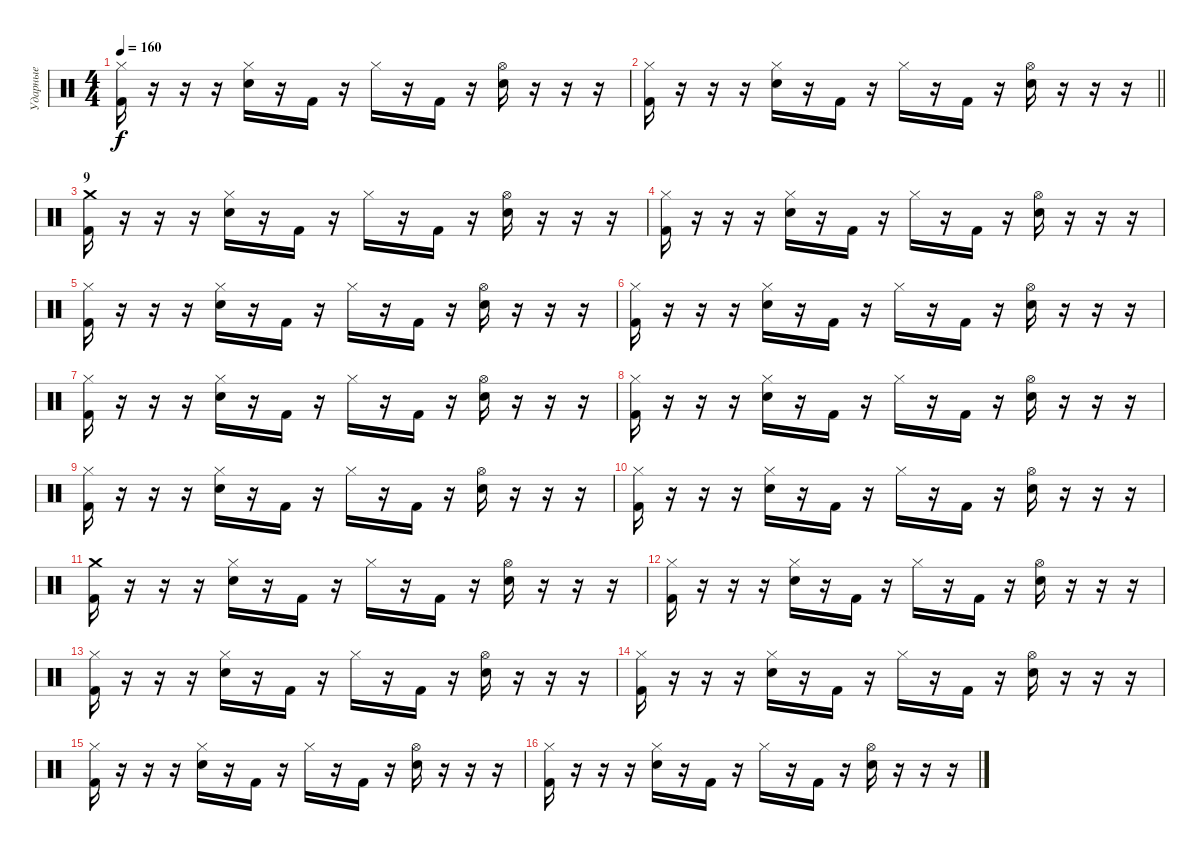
\track ("Ударные" "Ударные") {instrument percussion}
\staff {score}
\articulation defaults
\ts (4 4)
\tempo 160
\clef neutral
\ks c
("Hi-Hat (closed)" "Kick (hit) 2").16{dy f} r.16 r.16 r.16 ("Hi-Hat (closed)" "Electric Snare (hit)").16 r.16 "Kick (hit) 2".16 r.16 "Hi-Hat (closed)".16 r.16 "Kick (hit) 2".16 r.16 ("Hi-Hat (open)" "Electric Snare (hit)").16 r.16 r.16 r.16 |
\barLineRight lightlight
("Hi-Hat (closed)" "Kick (hit) 2").16 r.16 r.16 r.16 ("Hi-Hat (closed)" "Electric Snare (hit)").16 r.16 "Kick (hit) 2".16 r.16 "Hi-Hat (closed)".16 r.16 "Kick (hit) 2".16 r.16 ("Hi-Hat (open)" "Electric Snare (hit)").16 r.16 r.16 r.16 |
\section ("" "9")
("Crash medium (hit)" "Kick (hit) 2").16 r.16 r.16 r.16 ("Hi-Hat (closed)" "Electric Snare (hit)").16 r.16 "Kick (hit) 2".16 r.16 "Hi-Hat (closed)".16 r.16 "Kick (hit) 2".16 r.16 ("Hi-Hat (open)" "Electric Snare (hit)").16 r.16 r.16 r.16 |
("Hi-Hat (closed)" "Kick (hit) 2").16 r.16 r.16 r.16 ("Hi-Hat (closed)" "Electric Snare (hit)").16 r.16 "Kick (hit) 2".16 r.16 "Hi-Hat (closed)".16 r.16 "Kick (hit) 2".16 r.16 ("Hi-Hat (open)" "Electric Snare (hit)").16 r.16 r.16 r.16 |
("Hi-Hat (closed)" "Kick (hit) 2").16 r.16 r.16 r.16 ("Hi-Hat (closed)" "Electric Snare (hit)").16 r.16 "Kick (hit) 2".16 r.16 "Hi-Hat (closed)".16 r.16 "Kick (hit) 2".16 r.16 ("Hi-Hat (open)" "Electric Snare (hit)").16 r.16 r.16 r.16 |
("Hi-Hat (closed)" "Kick (hit) 2").16 r.16 r.16 r.16 ("Hi-Hat (closed)" "Electric Snare (hit)").16 r.16 "Kick (hit) 2".16 r.16 "Hi-Hat (closed)".16 r.16 "Kick (hit) 2".16 r.16 ("Hi-Hat (open)" "Electric Snare (hit)").16 r.16 r.16 r.16 |
("Hi-Hat (closed)" "Kick (hit) 2").16 r.16 r.16 r.16 ("Hi-Hat (closed)" "Electric Snare (hit)").16 r.16 "Kick (hit) 2".16 r.16 "Hi-Hat (closed)".16 r.16 "Kick (hit) 2".16 r.16 ("Hi-Hat (open)" "Electric Snare (hit)").16 r.16 r.16 r.16 |
("Hi-Hat (closed)" "Kick (hit) 2").16 r.16 r.16 r.16 ("Hi-Hat (closed)" "Electric Snare (hit)").16 r.16 "Kick (hit) 2".16 r.16 "Hi-Hat (closed)".16 r.16 "Kick (hit) 2".16 r.16 ("Hi-Hat (open)" "Electric Snare (hit)").16 r.16 r.16 r.16 |
("Hi-Hat (closed)" "Kick (hit) 2").16 r.16 r.16 r.16 ("Hi-Hat (closed)" "Electric Snare (hit)").16 r.16 "Kick (hit) 2".16 r.16 "Hi-Hat (closed)".16 r.16 "Kick (hit) 2".16 r.16 ("Hi-Hat (open)" "Electric Snare (hit)").16 r.16 r.16 r.16 |
("Hi-Hat (closed)" "Kick (hit) 2").16 r.16 r.16 r.16 ("Hi-Hat (closed)" "Electric Snare (hit)").16 r.16 "Kick (hit) 2".16 r.16 "Hi-Hat (closed)".16 r.16 "Kick (hit) 2".16 r.16 ("Hi-Hat (open)" "Electric Snare (hit)").16 r.16 r.16 r.16 |
("Crash medium (hit)" "Kick (hit) 2").16 r.16 r.16 r.16 ("Hi-Hat (closed)" "Electric Snare (hit)").16 r.16 "Kick (hit) 2".16 r.16 "Hi-Hat (closed)".16 r.16 "Kick (hit) 2".16 r.16 ("Hi-Hat (open)" "Electric Snare (hit)").16 r.16 r.16 r.16 |
("Hi-Hat (closed)" "Kick (hit) 2").16 r.16 r.16 r.16 ("Hi-Hat (closed)" "Electric Snare (hit)").16 r.16 "Kick (hit) 2".16 r.16 "Hi-Hat (closed)".16 r.16 "Kick (hit) 2".16 r.16 ("Hi-Hat (open)" "Electric Snare (hit)").16 r.16 r.16 r.16 |
("Hi-Hat (closed)" "Kick (hit) 2").16 r.16 r.16 r.16 ("Hi-Hat (closed)" "Electric Snare (hit)").16 r.16 "Kick (hit) 2".16 r.16 "Hi-Hat (closed)".16 r.16 "Kick (hit) 2".16 r.16 ("Hi-Hat (open)" "Electric Snare (hit)").16 r.16 r.16 r.16 |
("Hi-Hat (closed)" "Kick (hit) 2").16 r.16 r.16 r.16 ("Hi-Hat (closed)" "Electric Snare (hit)").16 r.16 "Kick (hit) 2".16 r.16 "Hi-Hat (closed)".16 r.16 "Kick (hit) 2".16 r.16 ("Hi-Hat (open)" "Electric Snare (hit)").16 r.16 r.16 r.16 |
("Hi-Hat (closed)" "Kick (hit) 2").16 r.16 r.16 r.16 ("Hi-Hat (closed)" "Electric Snare (hit)").16 r.16 "Kick (hit) 2".16 r.16 "Hi-Hat (closed)".16 r.16 "Kick (hit) 2".16 r.16 ("Hi-Hat (open)" "Electric Snare (hit)").16 r.16 r.16 r.16 |
("Hi-Hat (closed)" "Kick (hit) 2").16 r.16 r.16 r.16 ("Hi-Hat (closed)" "Electric Snare (hit)").16 r.16 "Kick (hit) 2".16 r.16 "Hi-Hat (closed)".16 r.16 "Kick (hit) 2".16 r.16 ("Hi-Hat (open)" "Electric Snare (hit)").16 r.16 r.16 r.16
